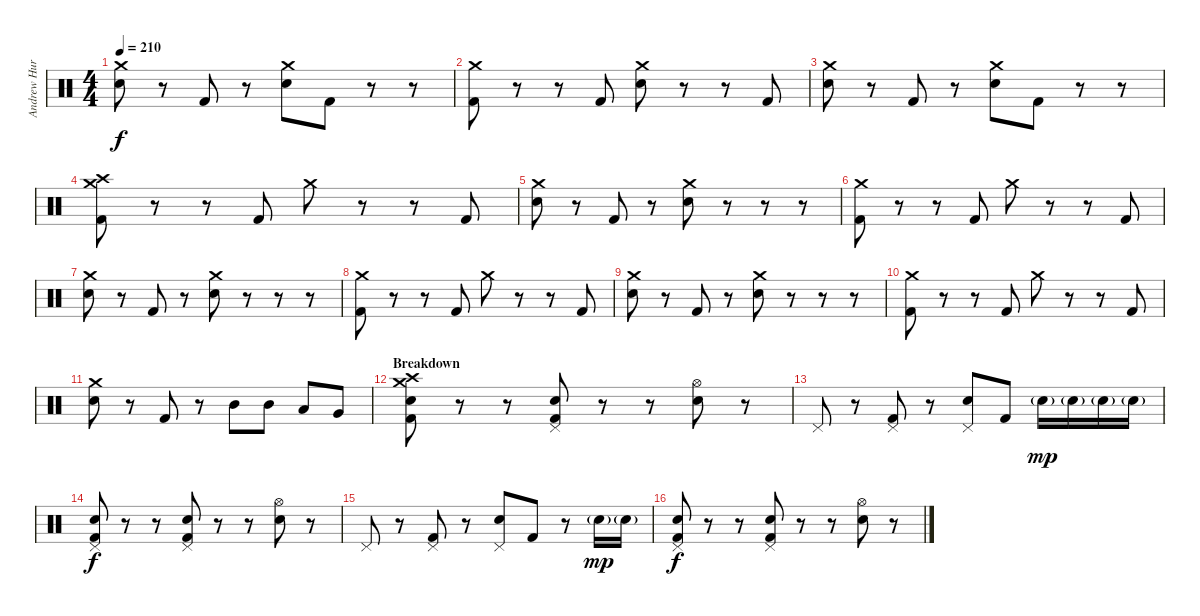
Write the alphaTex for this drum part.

\track ("Andrew Hurley (Drums)" "Andrew Hur") {instrument percussion}
\staff {score}
\articulation defaults
\ts (4 4)
\tempo 210
\clef neutral
\ks c
("Crash medium (hit)" "Electric Snare (hit)").8{dy f} r.8 "Kick (hit) 2".8 r.8 ("Crash medium (hit)" "Electric Snare (hit)").8 "Kick (hit) 2".8 r.8 r.8 |
("Crash medium (hit)" "Kick (hit) 2").8 r.8 r.8 "Kick (hit) 2".8 ("Crash medium (hit)" "Electric Snare (hit)").8 r.8 r.8 "Kick (hit) 2".8 |
("Crash medium (hit)" "Electric Snare (hit)").8 r.8 "Kick (hit) 2".8 r.8 ("Crash medium (hit)" "Electric Snare (hit)").8 "Kick (hit) 2".8 r.8 r.8 |
("Crash medium (hit)" "Crash high (hit)" "Kick (hit) 2").8 r.8 r.8 "Kick (hit) 2".8 "Crash medium (hit)".8 r.8 r.8 "Kick (hit) 2".8 |
("Crash medium (hit)" "Electric Snare (hit)").8 r.8 "Kick (hit) 2".8 r.8 ("Crash medium (hit)" "Electric Snare (hit)").8 r.8 r.8 r.8 |
("Crash medium (hit)" "Kick (hit) 2").8 r.8 r.8 "Kick (hit) 2".8 "Crash medium (hit)".8 r.8 r.8 "Kick (hit) 2".8 |
("Crash medium (hit)" "Electric Snare (hit)").8 r.8 "Kick (hit) 2".8 r.8 ("Crash medium (hit)" "Electric Snare (hit)").8 r.8 r.8 r.8 |
("Crash medium (hit)" "Kick (hit) 2").8 r.8 r.8 "Kick (hit) 2".8 "Crash medium (hit)".8 r.8 r.8 "Kick (hit) 2".8 |
("Crash medium (hit)" "Electric Snare (hit)").8 r.8 "Kick (hit) 2".8 r.8 ("Crash medium (hit)" "Electric Snare (hit)").8 r.8 r.8 r.8 |
("Crash medium (hit)" "Kick (hit) 2").8 r.8 r.8 "Kick (hit) 2".8 "Crash medium (hit)".8 r.8 r.8 "Kick (hit) 2".8 |
("Crash medium (hit)" "Electric Snare (hit)").8 r.8 "Kick (hit) 2".8 r.8 "Mid Tom (hit)".8 "Mid Tom (hit)".8 "Low Tom (hit)".8 "Very Low Tom (hit)".8 |
\section ("" "Breakdown")
("Crash medium (hit)" "Crash high (hit)" "Electric Snare (hit)" "Kick (hit) 2").8 r.8 r.8 ("Pedal Hi-Hat (hit)" "Electric Snare (hit)" "Kick (hit) 2").8 r.8 r.8 ("Hi-Hat (open)" "Electric Snare (hit)").8 r.8 |
"Pedal Hi-Hat (hit)".8 r.8 ("Pedal Hi-Hat (hit)" "Kick (hit) 2").8 r.8 ("Pedal Hi-Hat (hit)" "Electric Snare (hit)").8 "Kick (hit) 2".8 "Electric Snare (hit)"{g}.16{dy mp} "Electric Snare (hit)"{g}.16 "Electric Snare (hit)"{g}.16 "Electric Snare (hit)"{g}.16 |
("Pedal Hi-Hat (hit)" "Electric Snare (hit)" "Kick (hit) 2").8{dy f} r.8 r.8 ("Pedal Hi-Hat (hit)" "Electric Snare (hit)" "Kick (hit) 2").8 r.8 r.8 ("Hi-Hat (open)" "Electric Snare (hit)").8 r.8 |
"Pedal Hi-Hat (hit)".8 r.8 ("Pedal Hi-Hat (hit)" "Kick (hit) 2").8 r.8 ("Pedal Hi-Hat (hit)" "Electric Snare (hit)").8 "Kick (hit) 2".8 r.8 "Electric Snare (hit)"{g}.16{dy mp} "Electric Snare (hit)"{g}.16 |
("Pedal Hi-Hat (hit)" "Electric Snare (hit)" "Kick (hit) 2").8{dy f} r.8 r.8 ("Pedal Hi-Hat (hit)" "Electric Snare (hit)" "Kick (hit) 2").8 r.8 r.8 ("Hi-Hat (open)" "Electric Snare (hit)").8 r.8
